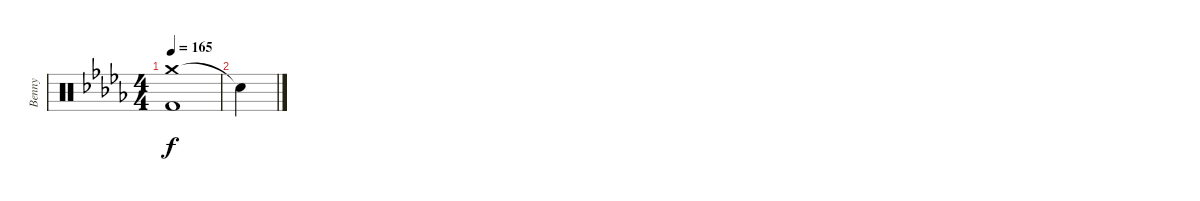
\track ("Benny" "Benny") {instrument percussion}
\staff {score}
\articulation defaults
\ts (4 4)
\tempo 165
\clef neutral
\ks db
("Crash medium (hit)" "Kick (hit) 2").1{dy f} |
"Snare (hit)"{t}.4
